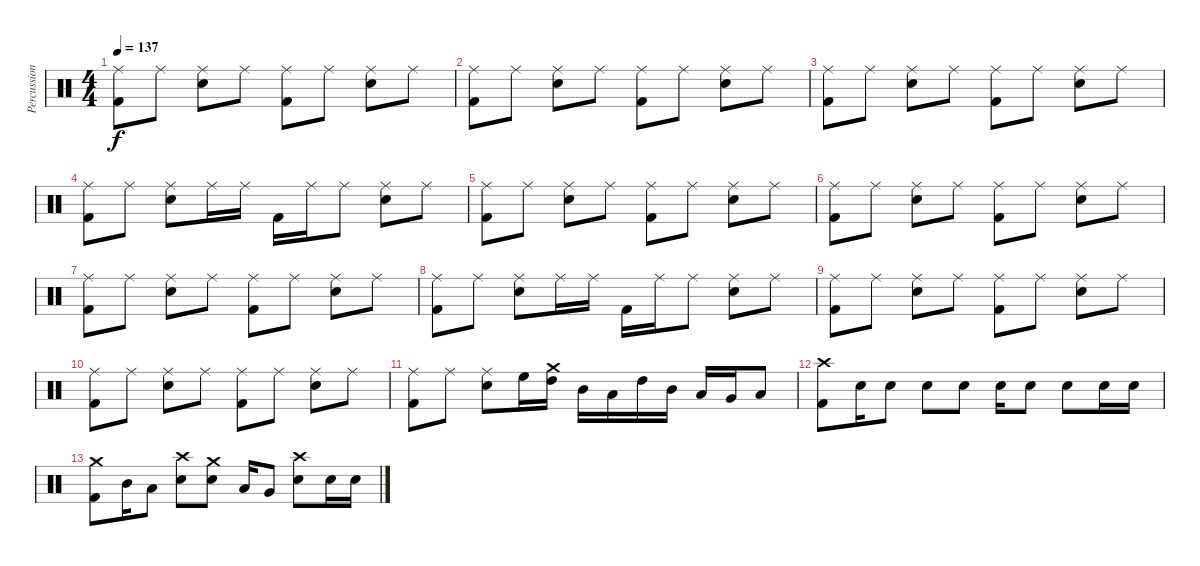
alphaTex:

\track ("Percussion" "Percussion") {instrument percussion}
\staff {score}
\articulation defaults
\ts (4 4)
\tempo 137
\clef neutral
\ks c
("Ride (middle)" "Kick (hit) 2").8{dy f} "Ride (middle)".8 ("Ride (middle)" "Snare (hit) 2").8 "Ride (middle)".8 ("Ride (middle)" "Kick (hit) 2").8 "Ride (middle)".8 ("Ride (middle)" "Snare (hit) 2").8 "Ride (middle)".8 |
("Ride (middle)" "Kick (hit) 2").8 "Ride (middle)".8 ("Ride (middle)" "Snare (hit) 2").8 "Ride (middle)".8 ("Ride (middle)" "Kick (hit) 2").8 "Ride (middle)".8 ("Ride (middle)" "Snare (hit) 2").8 "Ride (middle)".8 |
("Ride (middle)" "Kick (hit) 2").8 "Ride (middle)".8 ("Ride (middle)" "Snare (hit) 2").8 "Ride (middle)".8 ("Ride (middle)" "Kick (hit) 2").8 "Ride (middle)".8 ("Ride (middle)" "Snare (hit) 2").8 "Ride (middle)".8 |
("Ride (middle)" "Kick (hit) 2").8 "Ride (middle)".8 ("Ride (middle)" "Snare (hit) 2").8 "Ride (middle)".16 "Ride (middle)".16 "Kick (hit) 2".16 "Ride (middle)".16 "Ride (middle)".8 ("Ride (middle)" "Snare (hit) 2").8 "Ride (middle)".8 |
("Ride (middle)" "Kick (hit) 2").8 "Ride (middle)".8 ("Ride (middle)" "Snare (hit) 2").8 "Ride (middle)".8 ("Ride (middle)" "Kick (hit) 2").8 "Ride (middle)".8 ("Ride (middle)" "Snare (hit) 2").8 "Ride (middle)".8 |
("Ride (middle)" "Kick (hit) 2").8 "Ride (middle)".8 ("Ride (middle)" "Snare (hit) 2").8 "Ride (middle)".8 ("Ride (middle)" "Kick (hit) 2").8 "Ride (middle)".8 ("Ride (middle)" "Snare (hit) 2").8 "Ride (middle)".8 |
("Ride (middle)" "Kick (hit) 2").8 "Ride (middle)".8 ("Ride (middle)" "Snare (hit) 2").8 "Ride (middle)".8 ("Ride (middle)" "Kick (hit) 2").8 "Ride (middle)".8 ("Ride (middle)" "Snare (hit) 2").8 "Ride (middle)".8 |
("Ride (middle)" "Kick (hit) 2").8 "Ride (middle)".8 ("Ride (middle)" "Snare (hit) 2").8 "Ride (middle)".16 "Ride (middle)".16 "Kick (hit) 2".16 "Ride (middle)".16 "Ride (middle)".8 ("Ride (middle)" "Snare (hit) 2").8 "Ride (middle)".8 |
("Ride (middle)" "Kick (hit) 2").8 "Ride (middle)".8 ("Ride (middle)" "Snare (hit) 2").8 "Ride (middle)".8 ("Ride (middle)" "Kick (hit) 2").8 "Ride (middle)".8 ("Ride (middle)" "Snare (hit) 2").8 "Ride (middle)".8 |
("Ride (middle)" "Kick (hit) 2").8 "Ride (middle)".8 ("Ride (middle)" "Snare (hit) 2").8 "Ride (middle)".8 ("Ride (middle)" "Kick (hit) 2").8 "Ride (middle)".8 ("Ride (middle)" "Snare (hit) 2").8 "Ride (middle)".8 |
("Ride (middle)" "Kick (hit) 2").8 "Ride (middle)".8 ("Ride (middle)" "Snare (hit) 2").8 "High Floor Tom (hit)".16 ("Crash medium (hit)" "High Tom (hit)").16 "Mid Tom (hit)".16 "Low Tom (hit)".16 "High Tom (hit)".16 "Mid Tom (hit)".16 "Low Tom (hit)".16 "Very Low Tom (hit)".16 "Low Floor Tom (hit)".8 |
("Crash high (hit)" "Kick (hit) 2").8 "Snare (hit) 2".16 "Snare (hit) 2".8 "Snare (hit) 2".8 "Snare (hit) 2".8 "Snare (hit) 2".16 "Snare (hit) 2".8 "Snare (hit) 2".8 "Snare (hit) 2".16 "Snare (hit) 2".16 |
("Crash medium (hit)" "Kick (hit) 2").8 "Mid Tom (hit)".16 "Low Tom (hit)".8 ("Crash high (hit)" "Snare (hit) 2").8 ("Crash medium (hit)" "Snare (hit) 2").8 "Low Tom (hit)".16 "Very Low Tom (hit)".8 ("Crash high (hit)" "Snare (hit) 2").8 "Snare (hit) 2".16 "Snare (hit) 2".16
